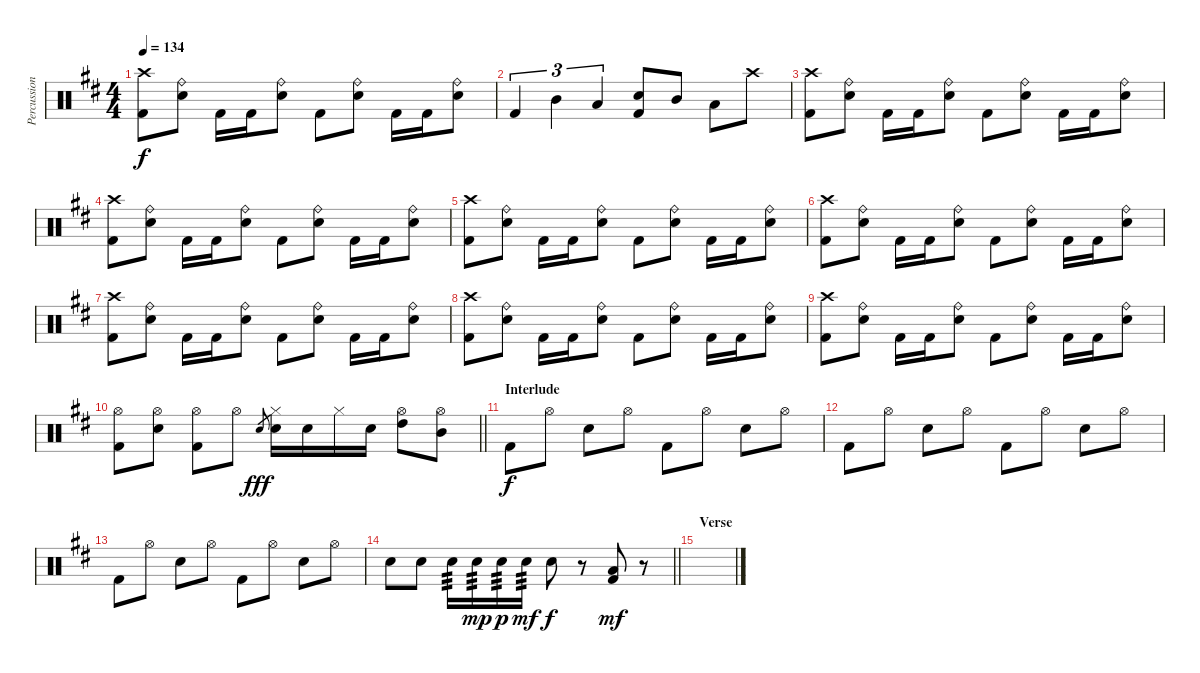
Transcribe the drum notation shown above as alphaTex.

\track ("Percussion" "Percussion") {instrument percussion}
\staff {score}
\articulation defaults
\ts (4 4)
\tempo 134
\clef neutral
\ks bminor
("Crash high (hit)" "Kick (hit) 2").8{dy f} ("Ride (bell)" "Snare (hit) 2").8 "Kick (hit) 2".16 "Kick (hit) 2".16 ("Ride (bell)" "Snare (hit) 2").8 "Kick (hit) 2".8 ("Ride (bell)" "Snare (hit) 2").8 "Kick (hit) 2".16 "Kick (hit) 2".16 ("Ride (bell)" "Snare (hit) 2").8 |
"Kick (hit) 2".4{tu (3 2)} "Mid Tom (hit)".4{tu (3 2)} "Low Tom (hit)".4{tu (3 2)} ("Snare (hit) 2" "Kick (hit) 2").8 "Mid Tom (hit)".8 "Low Tom (hit)".8 "Crash high (hit)".8 |
("Crash high (hit)" "Kick (hit) 2").8 ("Ride (bell)" "Snare (hit) 2").8 "Kick (hit) 2".16 "Kick (hit) 2".16 ("Ride (bell)" "Snare (hit) 2").8 "Kick (hit) 2".8 ("Ride (bell)" "Snare (hit) 2").8 "Kick (hit) 2".16 "Kick (hit) 2".16 ("Ride (bell)" "Snare (hit) 2").8 |
("Crash high (hit)" "Kick (hit) 2").8 ("Ride (bell)" "Snare (hit) 2").8 "Kick (hit) 2".16 "Kick (hit) 2".16 ("Ride (bell)" "Snare (hit) 2").8 "Kick (hit) 2".8 ("Ride (bell)" "Snare (hit) 2").8 "Kick (hit) 2".16 "Kick (hit) 2".16 ("Ride (bell)" "Snare (hit) 2").8 |
("Crash high (hit)" "Kick (hit) 2").8 ("Ride (bell)" "Snare (hit) 2").8 "Kick (hit) 2".16 "Kick (hit) 2".16 ("Ride (bell)" "Snare (hit) 2").8 "Kick (hit) 2".8 ("Ride (bell)" "Snare (hit) 2").8 "Kick (hit) 2".16 "Kick (hit) 2".16 ("Ride (bell)" "Snare (hit) 2").8 |
("Crash high (hit)" "Kick (hit) 2").8 ("Ride (bell)" "Snare (hit) 2").8 "Kick (hit) 2".16 "Kick (hit) 2".16 ("Ride (bell)" "Snare (hit) 2").8 "Kick (hit) 2".8 ("Ride (bell)" "Snare (hit) 2").8 "Kick (hit) 2".16 "Kick (hit) 2".16 ("Ride (bell)" "Snare (hit) 2").8 |
("Crash high (hit)" "Kick (hit) 2").8 ("Ride (bell)" "Snare (hit) 2").8 "Kick (hit) 2".16 "Kick (hit) 2".16 ("Ride (bell)" "Snare (hit) 2").8 "Kick (hit) 2".8 ("Ride (bell)" "Snare (hit) 2").8 "Kick (hit) 2".16 "Kick (hit) 2".16 ("Ride (bell)" "Snare (hit) 2").8 |
("Crash high (hit)" "Kick (hit) 2").8 ("Ride (bell)" "Snare (hit) 2").8 "Kick (hit) 2".16 "Kick (hit) 2".16 ("Ride (bell)" "Snare (hit) 2").8 "Kick (hit) 2".8 ("Ride (bell)" "Snare (hit) 2").8 "Kick (hit) 2".16 "Kick (hit) 2".16 ("Ride (bell)" "Snare (hit) 2").8 |
("Crash high (hit)" "Kick (hit) 2").8 ("Ride (bell)" "Snare (hit) 2").8 "Kick (hit) 2".16 "Kick (hit) 2".16 ("Ride (bell)" "Snare (hit) 2").8 "Kick (hit) 2".8 ("Ride (bell)" "Snare (hit) 2").8 "Kick (hit) 2".16 "Kick (hit) 2".16 ("Ride (bell)" "Snare (hit) 2").8 |
\barLineRight lightlight
("Hi-Hat (open)" "Kick (hit) 2").8 ("Hi-Hat (open)" "Snare (hit) 2").8 ("Hi-Hat (open)" "Kick (hit) 2").8 "Hi-Hat (open)".8 "Snare (hit) 2".8{gr dy fff} ("Hi-Hat (closed)" "Snare (hit) 2").16 "Snare (hit) 2".16 "Hi-Hat (closed)".16 "Snare (hit) 2".16 ("Hi-Hat (open)" "High Tom (hit)").8 ("Hi-Hat (open)" "Mid Tom (hit)").8 |
\section ("" "Interlude")
"Kick (hit) 2".8{dy f} "Hi-Hat (open)".8 "Snare (hit) 2".8 "Hi-Hat (open)".8 "Kick (hit) 2".8 "Hi-Hat (open)".8 "Snare (hit) 2".8 "Hi-Hat (open)".8 |
"Kick (hit) 2".8 "Hi-Hat (open)".8 "Snare (hit) 2".8 "Hi-Hat (open)".8 "Kick (hit) 2".8 "Hi-Hat (open)".8 "Snare (hit) 2".8 "Hi-Hat (open)".8 |
"Kick (hit) 2".8 "Hi-Hat (open)".8 "Snare (hit) 2".8 "Hi-Hat (open)".8 "Kick (hit) 2".8 "Hi-Hat (open)".8 "Snare (hit) 2".8 "Hi-Hat (open)".8 |
\barLineRight lightlight "Snare (hit) 2".8 "Snare (hit) 2".8 "Snare (hit) 2".16{tp 3} "Snare (hit) 2".16{tp 3 dy mp} "Snare (hit) 2".16{tp 3 dy p} "Snare (hit) 2".16{tp 3 dy mf} "Snare (hit) 2".8{dy f}
r.8 ("Low Floor Tom (hit)" "Kick (hit) 2").8{dy mf} r.8 |
\section ("" "Verse")
